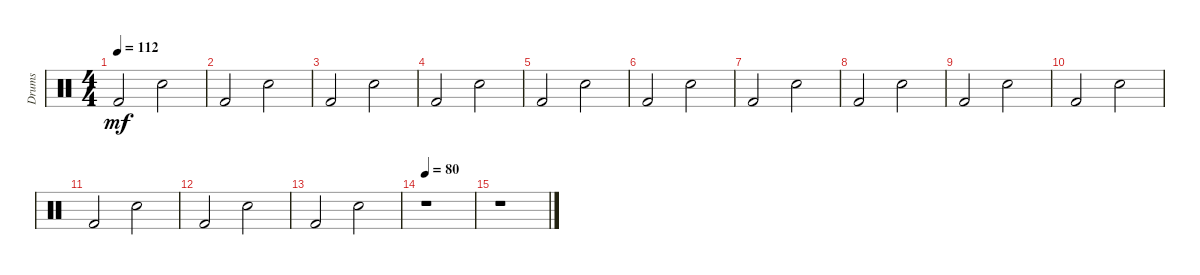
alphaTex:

\track ("Drums" "Drums") {instrument percussion}
\staff {score}
\articulation defaults
\ts (4 4)
\tempo 112
\clef neutral
\ks c "Kick (hit) 2".2{dy mf} "Snare (hit) 2".2
|
"Kick (hit) 2".2 "Snare (hit) 2".2 |
"Kick (hit) 2".2 "Snare (hit) 2".2 |
"Kick (hit) 2".2 "Snare (hit) 2".2 |
"Kick (hit) 2".2 "Snare (hit) 2".2 |
"Kick (hit) 2".2 "Snare (hit) 2".2 |
"Kick (hit) 2".2 "Snare (hit) 2".2 |
"Kick (hit) 2".2 "Snare (hit) 2".2 |
"Kick (hit) 2".2 "Snare (hit) 2".2 |
"Kick (hit) 2".2 "Snare (hit) 2".2 |
"Kick (hit) 2".2 "Snare (hit) 2".2 |
"Kick (hit) 2".2 "Snare (hit) 2".2 |
"Kick (hit) 2".2 "Snare (hit) 2".2 |
\tempo 80
r.1 |
r.1
